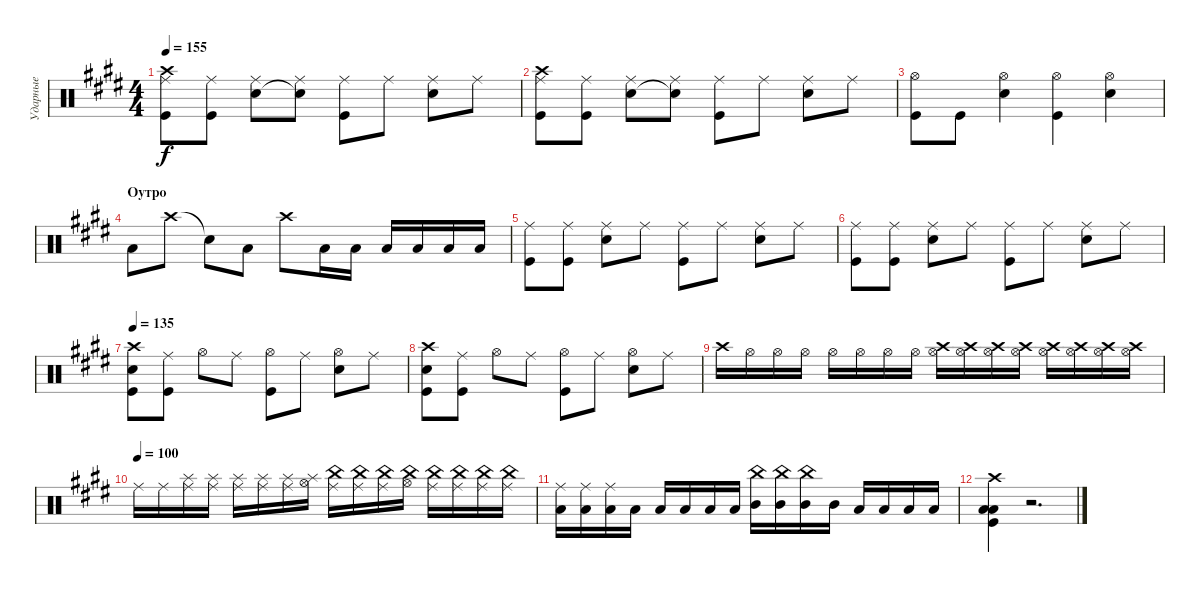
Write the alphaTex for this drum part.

\track ("Ударные" "Ударные") {instrument percussion}
\staff {score}
\articulation defaults
\ts (4 4)
\tempo 155
\clef neutral
\ks e
("Ride (middle)" "Crash high (hit)" "Kick (hit)").8{dy f} ("Ride (middle)" "Kick (hit)").8 ("Ride (middle)" "Snare (hit) 2").8 ("Ride (middle)" "Snare (hit)"{t}).8 ("Ride (middle)" "Kick (hit)").8 "Ride (middle)".8 ("Ride (middle)" "Snare (hit) 2").8 "Ride (middle)".8 |
("Ride (middle)" "Crash high (hit)" "Kick (hit)").8 ("Ride (middle)" "Kick (hit)").8 ("Ride (middle)" "Snare (hit) 2").8 ("Ride (middle)" "Snare (hit)"{t}).8 ("Ride (middle)" "Kick (hit)").8 "Ride (middle)".8 ("Ride (middle)" "Snare (hit) 2").8 "Ride (middle)".8 |
("Hi-Hat (open)" "Kick (hit)").8 "Kick (hit)".8 ("Hi-Hat (open)" "Snare (hit) 2").4 ("Hi-Hat (open)" "Kick (hit)").4 ("Hi-Hat (open)" "Snare (hit) 2").4 |
\section ("" "Оутро")
"Low Tom (hit)".8 "Crash high (hit)".8 "Snare (hit)"{t}.8 "Low Tom (hit)".8 "Crash high (hit)".8 "Low Tom (hit)".16 "Low Tom (hit)".16 "Low Tom (hit)".16 "Low Tom (hit)".16 "Low Tom (hit)".16 "Low Tom (hit)".16 |
("Ride (middle)" "Kick (hit)").8 ("Ride (middle)" "Kick (hit)").8 ("Ride (middle)" "Snare (hit) 2").8 "Ride (middle)".8 ("Ride (middle)" "Kick (hit)").8 "Ride (middle)".8 ("Ride (middle)" "Snare (hit) 2").8 "Ride (middle)".8 |
("Ride (middle)" "Kick (hit)").8 ("Ride (middle)" "Kick (hit)").8 ("Ride (middle)" "Snare (hit) 2").8 "Ride (middle)".8 ("Ride (middle)" "Kick (hit)").8 "Ride (middle)".8 ("Ride (middle)" "Snare (hit) 2").8 "Ride (middle)".8 |
\tempo 135
("Crash high (hit)" "Snare (hit) 2" "Kick (hit)").8 ("Ride (middle)" "Kick (hit)").8 "Hi-Hat (open)".8 "Ride (middle)".8 ("Hi-Hat (open)" "Kick (hit)").8 "Ride (middle)".8 ("Hi-Hat (open)" "Snare (hit) 2").8 "Ride (middle)".8 |
("Crash high (hit)" "Snare (hit) 2" "Kick (hit)").8 ("Ride (middle)" "Kick (hit)").8 "Hi-Hat (open)".8 "Ride (middle)".8 ("Hi-Hat (open)" "Kick (hit)").8 "Ride (middle)".8 ("Hi-Hat (open)" "Snare (hit) 2").8 "Ride (middle)".8 |
"Crash high (hit)".16 "Hi-Hat (open)".16 "Hi-Hat (open)".16 "Hi-Hat (open)".16 "Hi-Hat (open)".16 "Hi-Hat (open)".16 "Hi-Hat (open)".16 "Hi-Hat (open)".16 ("Crash high (hit)" "Hi-Hat (open)").16 ("Crash high (hit)" "Hi-Hat (open)").16 ("Crash high (hit)" "Hi-Hat (open)").16 ("Crash high (hit)" "Hi-Hat (open)").16 ("Crash high (hit)" "Hi-Hat (open)").16 ("Crash high (hit)" "Hi-Hat (open)").16 ("Crash high (hit)" "Hi-Hat (open)").16 ("Crash high (hit)" "Hi-Hat (open)").16 |
\tempo (100)
"Ride (middle)".16 "Ride (middle)".16 ("Splash (hit)" "Ride (middle)").16 ("Splash (hit)" "Ride (middle)").16 ("Splash (hit)" "Ride (middle)").16 ("Splash (hit)" "Ride (middle)").16 ("Splash (hit)" "Ride (middle)").16 ("Splash (hit)" "Hi-Hat (open)").16 ("China (hit)" "Ride (middle)").16 ("China (hit)" "Ride (middle)").16 ("China (hit)" "Ride (middle)").16 ("China (hit)" "Hi-Hat (open)").16 ("China (hit)" "Ride (middle)").16 ("China (hit)" "Ride (middle)").16 ("China (hit)" "Ride (middle)").16 ("China (hit)" "Ride (middle)").16 |
("Ride (middle)" "Low Tom (hit)").16 ("Ride (middle)" "Low Tom (hit)").16 ("Ride (middle)" "Low Tom (hit)").16 "Low Tom (hit)".16 "Low Floor Tom (hit)".16 "Low Floor Tom (hit)".16 "Low Floor Tom (hit)".16 "Low Floor Tom (hit)".16 ("China (hit)" "Mid Tom (hit)").16 ("China (hit)" "Mid Tom (hit)").16 ("China (hit)" "Mid Tom (hit)").16 "Mid Tom (hit)".16 "Low Tom (hit)".16 "Low Tom (hit)".16 "Low Tom (hit)".16 "Low Tom (hit)".16 |
("Crash high (hit)" "Low Floor Tom (hit)" "Low Tom (hit)" "Kick (hit)").4 r.2{d}
